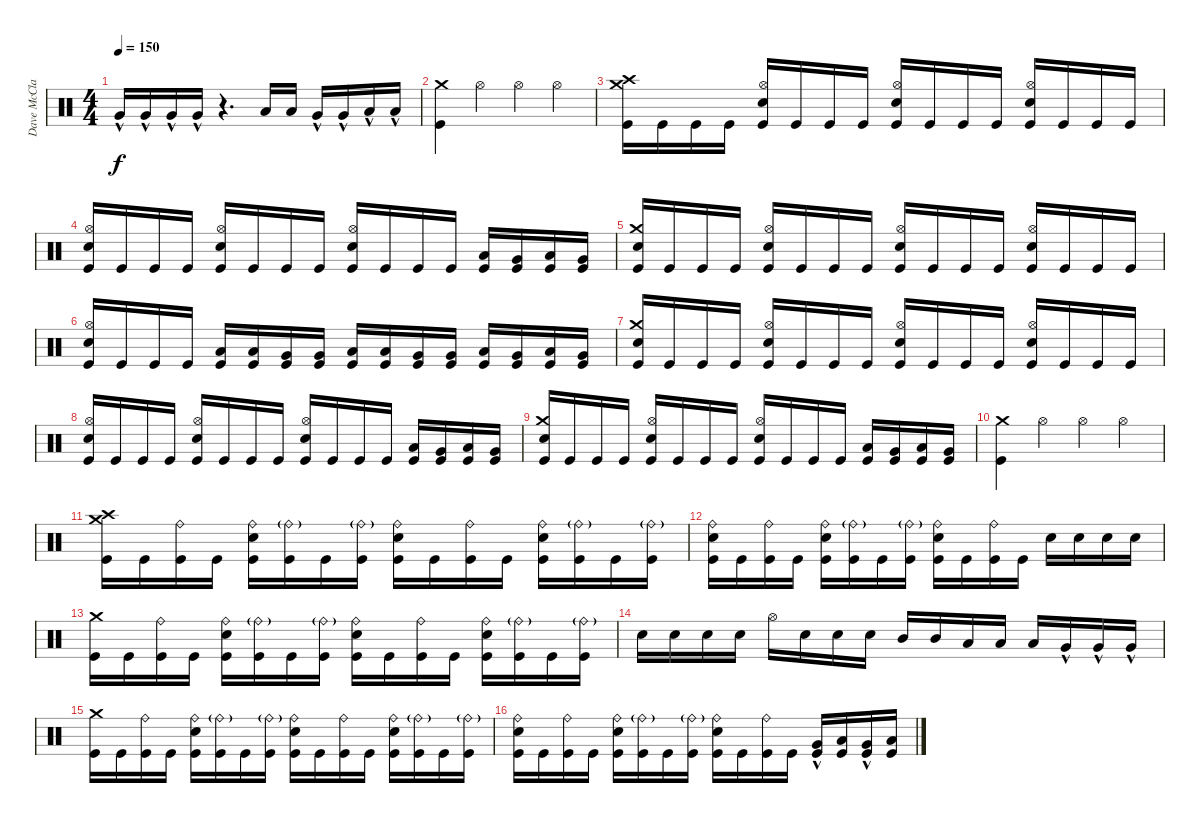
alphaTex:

\track ("Dave McClaine" "Dave McCla") {instrument percussion}
\staff {score}
\articulation defaults
\ts (4 4)
\tempo 150
\clef neutral
\ks c "Very Low Tom (hit)"{hac}.16{dy f} "Very Low Tom (hit)"{hac}.16 "Very Low Tom (hit)"{hac}.16 "Very Low Tom (hit)"{hac}.16
r.4{d} "Low Tom (hit)".16 "Low Tom (hit)".16 "Very Low Tom (hit)"{hac}.16 "Very Low Tom (hit)"{hac}.16 "Low Floor Tom (hit)"{hac}.16 "Low Floor Tom (hit)"{hac}.16 |
("Kick (hit)" "Crash medium (hit)").4 "Hi-Hat (open)".4 "Hi-Hat (open)".4 "Hi-Hat (open)".4 |
("Kick (hit)" "Crash high (hit)" "Crash medium (hit)").16 "Kick (hit)".16 "Kick (hit)".16 "Kick (hit)".16 ("Kick (hit)" "Snare (hit) 2" "Hi-Hat (open)").16 "Kick (hit)".16 "Kick (hit)".16 "Kick (hit)".16 ("Kick (hit)" "Snare (hit) 2" "Hi-Hat (open)").16 "Kick (hit)".16 "Kick (hit)".16 "Kick (hit)".16 ("Kick (hit)" "Snare (hit) 2" "Hi-Hat (open)").16 "Kick (hit)".16 "Kick (hit)".16 "Kick (hit)".16 |
("Hi-Hat (open)" "Kick (hit)" "Snare (hit) 2").16 "Kick (hit)".16 "Kick (hit)".16 "Kick (hit)".16 ("Kick (hit)" "Snare (hit) 2" "Hi-Hat (open)").16 "Kick (hit)".16 "Kick (hit)".16 "Kick (hit)".16 ("Kick (hit)" "Snare (hit) 2" "Hi-Hat (open)").16 "Kick (hit)".16 "Kick (hit)".16 "Kick (hit)".16 ("Kick (hit)" "Low Tom (hit)").16 ("Kick (hit)" "Very Low Tom (hit)").16 ("Kick (hit)" "Low Tom (hit)").16 ("Kick (hit)" "Very Low Tom (hit)").16 |
("Kick (hit)" "Snare (hit) 2" "Crash medium (hit)").16 "Kick (hit)".16 "Kick (hit)".16 "Kick (hit)".16 ("Kick (hit)" "Snare (hit) 2" "Hi-Hat (open)").16 "Kick (hit)".16 "Kick (hit)".16 "Kick (hit)".16 ("Kick (hit)" "Snare (hit) 2" "Hi-Hat (open)").16 "Kick (hit)".16 "Kick (hit)".16 "Kick (hit)".16 ("Kick (hit)" "Snare (hit) 2" "Hi-Hat (open)").16 "Kick (hit)".16 "Kick (hit)".16 "Kick (hit)".16 |
("Hi-Hat (open)" "Kick (hit)" "Snare (hit) 2").16 "Kick (hit)".16 "Kick (hit)".16 "Kick (hit)".16 ("Kick (hit)" "Low Tom (hit)").16 ("Kick (hit)" "Low Tom (hit)").16 ("Kick (hit)" "Very Low Tom (hit)").16 ("Kick (hit)" "Very Low Tom (hit)").16 ("Kick (hit)" "Low Tom (hit)").16 ("Kick (hit)" "Low Tom (hit)").16 ("Kick (hit)" "Very Low Tom (hit)").16 ("Kick (hit)" "Very Low Tom (hit)").16 ("Kick (hit)" "Low Tom (hit)").16 ("Kick (hit)" "Very Low Tom (hit)").16 ("Kick (hit)" "Low Tom (hit)").16 ("Kick (hit)" "Very Low Tom (hit)").16 |
("Kick (hit)" "Snare (hit) 2" "Crash medium (hit)").16 "Kick (hit)".16 "Kick (hit)".16 "Kick (hit)".16 ("Kick (hit)" "Snare (hit) 2" "Hi-Hat (open)").16 "Kick (hit)".16 "Kick (hit)".16 "Kick (hit)".16 ("Kick (hit)" "Snare (hit) 2" "Hi-Hat (open)").16 "Kick (hit)".16 "Kick (hit)".16 "Kick (hit)".16 ("Kick (hit)" "Snare (hit) 2" "Hi-Hat (open)").16 "Kick (hit)".16 "Kick (hit)".16 "Kick (hit)".16 |
("Hi-Hat (open)" "Kick (hit)" "Snare (hit) 2").16 "Kick (hit)".16 "Kick (hit)".16 "Kick (hit)".16 ("Kick (hit)" "Snare (hit) 2" "Hi-Hat (open)").16 "Kick (hit)".16 "Kick (hit)".16 "Kick (hit)".16 ("Kick (hit)" "Snare (hit) 2" "Hi-Hat (open)").16 "Kick (hit)".16 "Kick (hit)".16 "Kick (hit)".16 ("Kick (hit)" "Low Tom (hit)").16 ("Kick (hit)" "Very Low Tom (hit)").16 ("Kick (hit)" "Low Tom (hit)").16 ("Kick (hit)" "Very Low Tom (hit)").16 |
("Kick (hit)" "Snare (hit) 2" "Crash medium (hit)").16 "Kick (hit)".16 "Kick (hit)".16 "Kick (hit)".16 ("Kick (hit)" "Snare (hit) 2" "Hi-Hat (open)").16 "Kick (hit)".16 "Kick (hit)".16 "Kick (hit)".16 ("Kick (hit)" "Snare (hit) 2" "Hi-Hat (open)").16 "Kick (hit)".16 "Kick (hit)".16 "Kick (hit)".16 ("Kick (hit)" "Low Tom (hit)").16 ("Kick (hit)" "Very Low Tom (hit)").16 ("Kick (hit)" "Low Tom (hit)").16 ("Kick (hit)" "Very Low Tom (hit)").16 |
("Kick (hit)" "Crash medium (hit)").4 "Hi-Hat (open)".4 "Hi-Hat (open)".4 "Hi-Hat (open)".4 |
("Kick (hit)" "Crash high (hit)" "Crash medium (hit)").16 "Kick (hit)".16 ("Kick (hit)" "Ride (bell)").16 "Kick (hit)".16 ("Kick (hit)" "Snare (hit) 2" "Ride (bell)").16 ("Kick (hit)" "Ride (bell)"{g}).16 "Kick (hit)".16 ("Kick (hit)" "Ride (bell)"{g}).16 ("Kick (hit)" "Snare (hit) 2" "Ride (bell)").16 "Kick (hit)".16 ("Kick (hit)" "Ride (bell)").16 "Kick (hit)".16 ("Kick (hit)" "Snare (hit) 2" "Ride (bell)").16 ("Kick (hit)" "Ride (bell)"{g}).16 "Kick (hit)".16 ("Kick (hit)" "Ride (bell)"{g}).16 |
("Kick (hit)" "Ride (bell)" "Snare (hit) 2").16 "Kick (hit)".16 ("Kick (hit)" "Ride (bell)").16 "Kick (hit)".16 ("Kick (hit)" "Snare (hit) 2" "Ride (bell)").16 ("Kick (hit)" "Ride (bell)"{g}).16 "Kick (hit)".16 ("Kick (hit)" "Ride (bell)"{g}).16 ("Kick (hit)" "Snare (hit) 2" "Ride (bell)").16 "Kick (hit)".16 ("Kick (hit)" "Ride (bell)").16 "Kick (hit)".16 "Snare (hit) 2".16 "Snare (hit) 2".16 "Snare (hit) 2".16 "Snare (hit) 2".16 |
("Kick (hit)" "Crash medium (hit)").16 "Kick (hit)".16 ("Kick (hit)" "Ride (bell)").16 "Kick (hit)".16 ("Kick (hit)" "Snare (hit) 2" "Ride (bell)").16 ("Kick (hit)" "Ride (bell)"{g}).16 "Kick (hit)".16 ("Kick (hit)" "Ride (bell)"{g}).16 ("Kick (hit)" "Snare (hit) 2" "Ride (bell)").16 "Kick (hit)".16 ("Kick (hit)" "Ride (bell)").16 "Kick (hit)".16 ("Kick (hit)" "Snare (hit) 2" "Ride (bell)").16 ("Kick (hit)" "Ride (bell)"{g}).16 "Kick (hit)".16 ("Kick (hit)" "Ride (bell)"{g}).16 |
"Snare (hit) 2".16 "Snare (hit) 2".16 "Snare (hit) 2".16 "Snare (hit) 2".16 "Hi-Hat (open)".16 "Snare (hit) 2".16 "Snare (hit) 2".16 "Snare (hit) 2".16 "Mid Tom (hit)".16 "Mid Tom (hit)".16 "Low Tom (hit)".16 "Low Tom (hit)".16 "Low Tom (hit)".16 "Very Low Tom (hit)"{hac}.16 "Very Low Tom (hit)"{hac}.16 "Very Low Tom (hit)"{hac}.16 |
("Kick (hit)" "Crash medium (hit)").16 "Kick (hit)".16 ("Kick (hit)" "Ride (bell)").16 "Kick (hit)".16 ("Kick (hit)" "Snare (hit) 2" "Ride (bell)").16 ("Kick (hit)" "Ride (bell)"{g}).16 "Kick (hit)".16 ("Kick (hit)" "Ride (bell)"{g}).16 ("Kick (hit)" "Snare (hit) 2" "Ride (bell)").16 "Kick (hit)".16 ("Kick (hit)" "Ride (bell)").16 "Kick (hit)".16 ("Kick (hit)" "Snare (hit) 2" "Ride (bell)").16 ("Kick (hit)" "Ride (bell)"{g}).16 "Kick (hit)".16 ("Kick (hit)" "Ride (bell)"{g}).16 |
("Kick (hit)" "Ride (bell)" "Snare (hit) 2").16 "Kick (hit)".16 ("Kick (hit)" "Ride (bell)").16 "Kick (hit)".16 ("Kick (hit)" "Snare (hit) 2" "Ride (bell)").16 ("Kick (hit)" "Ride (bell)"{g}).16 "Kick (hit)".16 ("Kick (hit)" "Ride (bell)"{g}).16 ("Kick (hit)" "Snare (hit) 2" "Ride (bell)").16 "Kick (hit)".16 ("Kick (hit)" "Ride (bell)").16 "Kick (hit)".16 ("Very Low Tom (hit)"{hac} "Kick (hit)").16 ("Low Tom (hit)" "Kick (hit)").16 ("Very Low Tom (hit)"{hac} "Kick (hit)").16 ("Low Tom (hit)" "Kick (hit)").16
